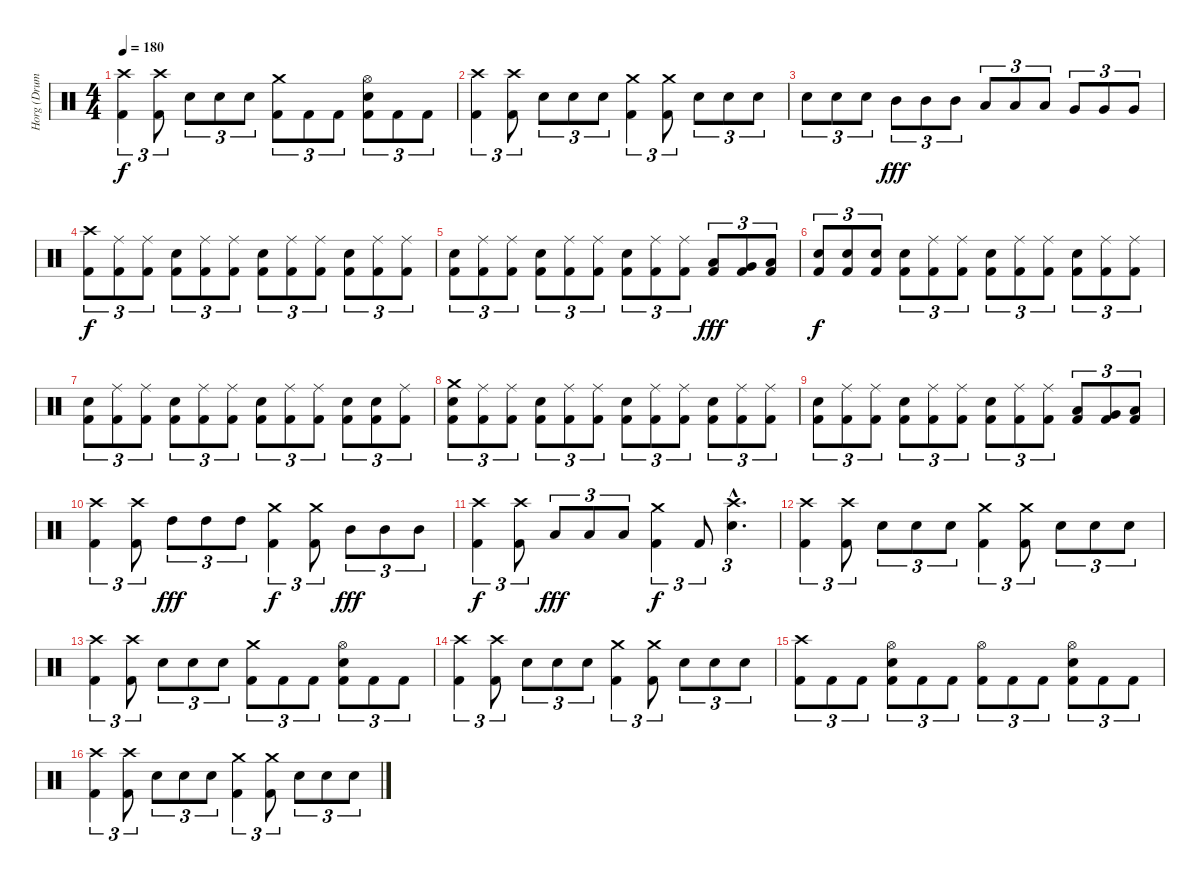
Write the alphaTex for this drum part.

\track ("Horg (Drums)" "Horg (Drum") {instrument percussion}
\staff {score}
\articulation defaults
\ts (4 4)
\tempo 180
\clef neutral
\ks c
("Crash high (hit)" "Kick (hit) 2").4{tu (3 2) dy f} ("Crash high (hit)" "Kick (hit) 2").8{tu (3 2)} "Electric Snare (hit)".8{tu (3 2)} "Electric Snare (hit)".8{tu (3 2)} "Electric Snare (hit)".8{tu (3 2)} ("Crash medium (hit)" "Kick (hit) 2").8{tu (3 2)} "Kick (hit) 2".8{tu (3 2)} "Kick (hit) 2".8{tu (3 2)} ("Hi-Hat (open)" "Electric Snare (hit)" "Kick (hit) 2").8{tu (3 2)} "Kick (hit) 2".8{tu (3 2)} "Kick (hit) 2".8{tu (3 2)} |
("Crash high (hit)" "Kick (hit) 2").4{tu (3 2)} ("Crash high (hit)" "Kick (hit) 2").8{tu (3 2)} "Electric Snare (hit)".8{tu (3 2)} "Electric Snare (hit)".8{tu (3 2)} "Electric Snare (hit)".8{tu (3 2)} ("Crash medium (hit)" "Kick (hit) 2").4{tu (3 2)} ("Crash medium (hit)" "Kick (hit) 2").8{tu (3 2)} "Electric Snare (hit)".8{tu (3 2)} "Electric Snare (hit)".8{tu (3 2)} "Electric Snare (hit)".8{tu (3 2)} |
"Electric Snare (hit)".8{tu (3 2)} "Electric Snare (hit)".8{tu (3 2)} "Electric Snare (hit)".8{tu (3 2)} "Mid Tom (hit)".8{tu (3 2) dy fff} "Mid Tom (hit)".8{tu (3 2)} "Mid Tom (hit)".8{tu (3 2)} "Low Tom (hit)".8{tu (3 2)} "Low Tom (hit)".8{tu (3 2)} "Low Tom (hit)".8{tu (3 2)} "Very Low Tom (hit)".8{tu (3 2)} "Very Low Tom (hit)".8{tu (3 2)} "Very Low Tom (hit)".8{tu (3 2)} |
("Crash high (hit)" "Kick (hit) 2").8{tu (3 2) dy f} ("Ride (middle)" "Kick (hit) 2").8{tu (3 2)} ("Ride (middle)" "Kick (hit) 2").8{tu (3 2)} ("Electric Snare (hit)" "Kick (hit) 2").8{tu (3 2)} ("Ride (middle)" "Kick (hit) 2").8{tu (3 2)} ("Ride (middle)" "Kick (hit) 2").8{tu (3 2)} ("Electric Snare (hit)" "Kick (hit) 2").8{tu (3 2)} ("Ride (middle)" "Kick (hit) 2").8{tu (3 2)} ("Ride (middle)" "Kick (hit) 2").8{tu (3 2)} ("Electric Snare (hit)" "Kick (hit) 2").8{tu (3 2)} ("Ride (middle)" "Kick (hit) 2").8{tu (3 2)} ("Ride (middle)" "Kick (hit) 2").8{tu (3 2)} |
("Electric Snare (hit)" "Kick (hit) 2").8{tu (3 2)} ("Ride (middle)" "Kick (hit) 2").8{tu (3 2)} ("Ride (middle)" "Kick (hit) 2").8{tu (3 2)} ("Electric Snare (hit)" "Kick (hit) 2").8{tu (3 2)} ("Ride (middle)" "Kick (hit) 2").8{tu (3 2)} ("Ride (middle)" "Kick (hit) 2").8{tu (3 2)} ("Electric Snare (hit)" "Kick (hit) 2").8{tu (3 2)} ("Ride (middle)" "Kick (hit) 2").8{tu (3 2)} ("Ride (middle)" "Kick (hit) 2").8{tu (3 2)} ("Low Tom (hit)" "Kick (hit) 2").8{tu (3 2) dy fff} ("Very Low Tom (hit)" "Kick (hit) 2").8{tu (3 2)} ("Low Floor Tom (hit)" "Kick (hit) 2").8{tu (3 2)} |
("Electric Snare (hit)" "Kick (hit) 2").8{tu (3 2) dy f} ("Electric Snare (hit)" "Kick (hit) 2").8{tu (3 2)} ("Electric Snare (hit)" "Kick (hit) 2").8{tu (3 2)} ("Electric Snare (hit)" "Kick (hit) 2").8{tu (3 2)} ("Ride (middle)" "Kick (hit) 2").8{tu (3 2)} ("Ride (middle)" "Kick (hit) 2").8{tu (3 2)} ("Electric Snare (hit)" "Kick (hit) 2").8{tu (3 2)} ("Ride (middle)" "Kick (hit) 2").8{tu (3 2)} ("Ride (middle)" "Kick (hit) 2").8{tu (3 2)} ("Electric Snare (hit)" "Kick (hit) 2").8{tu (3 2)} ("Ride (middle)" "Kick (hit) 2").8{tu (3 2)} ("Ride (middle)" "Kick (hit) 2").8{tu (3 2)} |
("Electric Snare (hit)" "Kick (hit) 2").8{tu (3 2)} ("Ride (middle)" "Kick (hit) 2").8{tu (3 2)} ("Ride (middle)" "Kick (hit) 2").8{tu (3 2)} ("Electric Snare (hit)" "Kick (hit) 2").8{tu (3 2)} ("Ride (middle)" "Kick (hit) 2").8{tu (3 2)} ("Ride (middle)" "Kick (hit) 2").8{tu (3 2)} ("Electric Snare (hit)" "Kick (hit) 2").8{tu (3 2)} ("Ride (middle)" "Kick (hit) 2").8{tu (3 2)} ("Ride (middle)" "Kick (hit) 2").8{tu (3 2)} ("Electric Snare (hit)" "Kick (hit) 2").8{tu (3 2)} ("Electric Snare (hit)" "Kick (hit) 2").8{tu (3 2)} ("Ride (middle)" "Kick (hit) 2").8{tu (3 2)} |
("Crash medium (hit)" "Electric Snare (hit)" "Kick (hit) 2").8{tu (3 2)} ("Ride (middle)" "Kick (hit) 2").8{tu (3 2)} ("Ride (middle)" "Kick (hit) 2").8{tu (3 2)} ("Electric Snare (hit)" "Kick (hit) 2").8{tu (3 2)} ("Ride (middle)" "Kick (hit) 2").8{tu (3 2)} ("Ride (middle)" "Kick (hit) 2").8{tu (3 2)} ("Electric Snare (hit)" "Kick (hit) 2").8{tu (3 2)} ("Ride (middle)" "Kick (hit) 2").8{tu (3 2)} ("Ride (middle)" "Kick (hit) 2").8{tu (3 2)} ("Electric Snare (hit)" "Kick (hit) 2").8{tu (3 2)} ("Ride (middle)" "Kick (hit) 2").8{tu (3 2)} ("Ride (middle)" "Kick (hit) 2").8{tu (3 2)} |
("Electric Snare (hit)" "Kick (hit) 2").8{tu (3 2)} ("Ride (middle)" "Kick (hit) 2").8{tu (3 2)} ("Ride (middle)" "Kick (hit) 2").8{tu (3 2)} ("Electric Snare (hit)" "Kick (hit) 2").8{tu (3 2)} ("Ride (middle)" "Kick (hit) 2").8{tu (3 2)} ("Ride (middle)" "Kick (hit) 2").8{tu (3 2)} ("Electric Snare (hit)" "Kick (hit) 2").8{tu (3 2)} ("Ride (middle)" "Kick (hit) 2").8{tu (3 2)} ("Ride (middle)" "Kick (hit) 2").8{tu (3 2)} ("Low Tom (hit)" "Kick (hit) 2").8{tu (3 2)} ("Very Low Tom (hit)" "Kick (hit) 2").8{tu (3 2)} ("Low Floor Tom (hit)" "Kick (hit) 2").8{tu (3 2)} |
("Crash high (hit)" "Kick (hit) 2").4{tu (3 2)} ("Crash high (hit)" "Kick (hit) 2").8{tu (3 2)} "High Tom (hit)".8{tu (3 2) dy fff} "High Tom (hit)".8{tu (3 2)} "High Tom (hit)".8{tu (3 2)} ("Crash medium (hit)" "Kick (hit) 2").4{tu (3 2) dy f} ("Crash medium (hit)" "Kick (hit) 2").8{tu (3 2)} "Mid Tom (hit)".8{tu (3 2) dy fff} "Mid Tom (hit)".8{tu (3 2)} "Mid Tom (hit)".8{tu (3 2)} |
("Crash high (hit)" "Kick (hit) 2").4{tu (3 2) dy f} ("Crash high (hit)" "Kick (hit) 2").8{tu (3 2)} "Low Tom (hit)".8{tu (3 2) dy fff} "Low Tom (hit)".8{tu (3 2)} "Low Tom (hit)".8{tu (3 2)} ("Crash medium (hit)" "Kick (hit) 2").4{tu (3 2) dy f} "Kick (hit) 2".8{tu (3 2)} ("Crash high (hit)"{hac} "Electric Snare (hit)"{hac}).4{d tu (3 2)} |
("Crash high (hit)" "Kick (hit) 2").4{tu (3 2)} ("Crash high (hit)" "Kick (hit) 2").8{tu (3 2)} "Electric Snare (hit)".8{tu (3 2)} "Electric Snare (hit)".8{tu (3 2)} "Electric Snare (hit)".8{tu (3 2)} ("Crash medium (hit)" "Kick (hit) 2").4{tu (3 2)} ("Crash medium (hit)" "Kick (hit) 2").8{tu (3 2)} "Electric Snare (hit)".8{tu (3 2)} "Electric Snare (hit)".8{tu (3 2)} "Electric Snare (hit)".8{tu (3 2)} |
("Crash high (hit)" "Kick (hit) 2").4{tu (3 2)} ("Crash high (hit)" "Kick (hit) 2").8{tu (3 2)} "Electric Snare (hit)".8{tu (3 2)} "Electric Snare (hit)".8{tu (3 2)} "Electric Snare (hit)".8{tu (3 2)} ("Crash medium (hit)" "Kick (hit) 2").8{tu (3 2)} "Kick (hit) 2".8{tu (3 2)} "Kick (hit) 2".8{tu (3 2)} ("Hi-Hat (open)" "Electric Snare (hit)" "Kick (hit) 2").8{tu (3 2)} "Kick (hit) 2".8{tu (3 2)} "Kick (hit) 2".8{tu (3 2)} |
("Crash high (hit)" "Kick (hit) 2").4{tu (3 2)} ("Crash high (hit)" "Kick (hit) 2").8{tu (3 2)} "Electric Snare (hit)".8{tu (3 2)} "Electric Snare (hit)".8{tu (3 2)} "Electric Snare (hit)".8{tu (3 2)} ("Crash medium (hit)" "Kick (hit) 2").4{tu (3 2)} ("Crash medium (hit)" "Kick (hit) 2").8{tu (3 2)} "Electric Snare (hit)".8{tu (3 2)} "Electric Snare (hit)".8{tu (3 2)} "Electric Snare (hit)".8{tu (3 2)} |
("Crash high (hit)" "Kick (hit) 2").8{tu (3 2)} "Kick (hit) 2".8{tu (3 2)} "Kick (hit) 2".8{tu (3 2)} ("Hi-Hat (open)" "Electric Snare (hit)" "Kick (hit) 2").8{tu (3 2)} "Kick (hit) 2".8{tu (3 2)} "Kick (hit) 2".8{tu (3 2)} ("Hi-Hat (open)" "Kick (hit) 2").8{tu (3 2)} "Kick (hit) 2".8{tu (3 2)} "Kick (hit) 2".8{tu (3 2)} ("Hi-Hat (open)" "Electric Snare (hit)" "Kick (hit) 2").8{tu (3 2)} "Kick (hit) 2".8{tu (3 2)} "Kick (hit) 2".8{tu (3 2)} |
("Crash high (hit)" "Kick (hit) 2").4{tu (3 2)} ("Crash high (hit)" "Kick (hit) 2").8{tu (3 2)} "Electric Snare (hit)".8{tu (3 2)} "Electric Snare (hit)".8{tu (3 2)} "Electric Snare (hit)".8{tu (3 2)} ("Crash medium (hit)" "Kick (hit) 2").4{tu (3 2)} ("Crash medium (hit)" "Kick (hit) 2").8{tu (3 2)} "Electric Snare (hit)".8{tu (3 2)} "Electric Snare (hit)".8{tu (3 2)} "Electric Snare (hit)".8{tu (3 2)}
